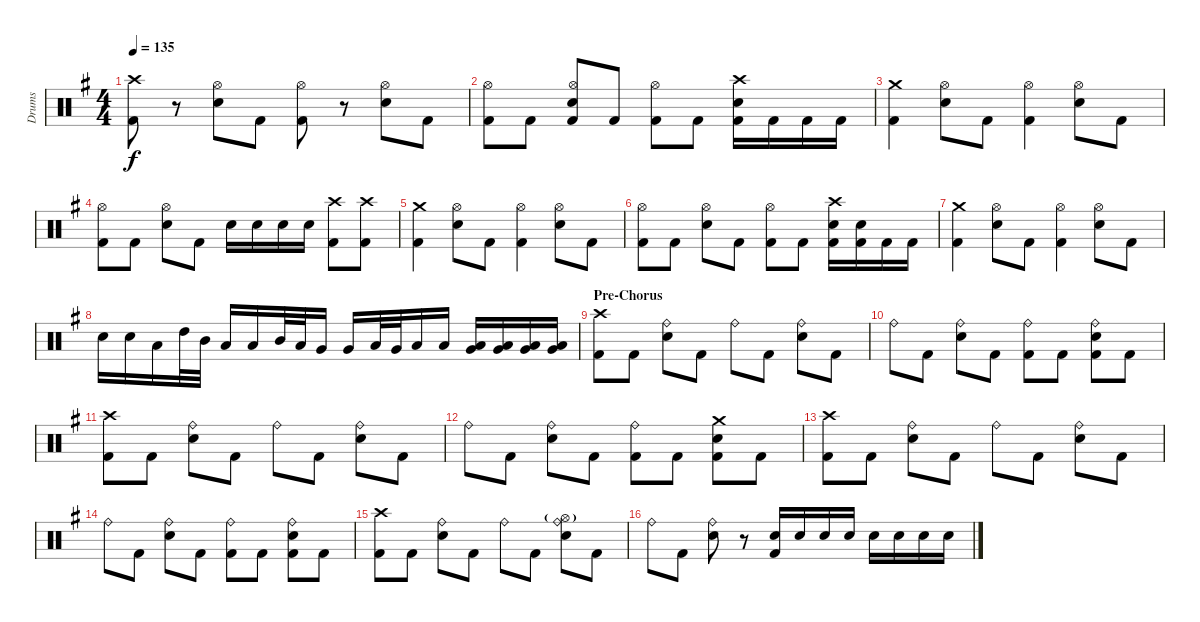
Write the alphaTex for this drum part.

\track ("Drums" "Drums") {instrument percussion}
\staff {score}
\articulation defaults
\ts (4 4)
\tempo 135
\clef neutral
\ks eminor
("Crash high (hit)" "Kick (hit) 2").8{dy f} r.8 ("Hi-Hat (open)" "Snare (hit) 2").8 "Kick (hit) 2".8 ("Hi-Hat (open)" "Kick (hit) 2").8 r.8 ("Hi-Hat (open)" "Snare (hit) 2").8 "Kick (hit) 2".8 |
("Hi-Hat (open)" "Kick (hit) 2").8 "Kick (hit) 2".8 ("Hi-Hat (open)" "Snare (hit) 2" "Kick (hit) 2").8 "Kick (hit) 2".8 ("Hi-Hat (open)" "Kick (hit) 2").8 "Kick (hit) 2".8 ("Crash high (hit)" "Snare (hit) 2" "Kick (hit) 2").16 "Kick (hit) 2".16 "Kick (hit) 2".16 "Kick (hit) 2".16 |
("Crash medium (hit)" "Kick (hit) 2").4 ("Hi-Hat (open)" "Snare (hit) 2").8 "Kick (hit) 2".8 ("Hi-Hat (open)" "Kick (hit) 2").4 ("Hi-Hat (open)" "Snare (hit) 2").8 "Kick (hit) 2".8 |
("Hi-Hat (open)" "Kick (hit) 2").8 "Kick (hit) 2".8 ("Hi-Hat (open)" "Snare (hit) 2").8 "Kick (hit) 2".8 "Snare (hit) 2".16 "Snare (hit) 2".16 "Snare (hit) 2".16 "Snare (hit) 2".16 ("Crash high (hit)" "Kick (hit) 2").8 ("Crash high (hit)" "Kick (hit) 2").8 |
("Crash medium (hit)" "Kick (hit) 2").4 ("Hi-Hat (open)" "Snare (hit) 2").8 "Kick (hit) 2".8 ("Hi-Hat (open)" "Kick (hit) 2").4 ("Hi-Hat (open)" "Snare (hit) 2").8 "Kick (hit) 2".8 |
("Hi-Hat (open)" "Kick (hit) 2").8 "Kick (hit) 2".8 ("Hi-Hat (open)" "Snare (hit) 2").8 "Kick (hit) 2".8 ("Hi-Hat (open)" "Kick (hit) 2").8 "Kick (hit) 2".8 ("Crash high (hit)" "Snare (hit) 2" "Kick (hit) 2").16 ("Snare (hit) 2" "Kick (hit) 2").16 "Kick (hit) 2".16 "Kick (hit) 2".16 |
("Crash medium (hit)" "Kick (hit) 2").4 ("Hi-Hat (open)" "Snare (hit) 2").8 "Kick (hit) 2".8 ("Hi-Hat (open)" "Kick (hit) 2").4 ("Hi-Hat (open)" "Snare (hit) 2").8 "Kick (hit) 2".8 |
"Snare (hit) 2".16 "Snare (hit) 2".16 "Low Tom (hit)".16 "High Tom (hit)".32 "Mid Tom (hit)".32 "Low Tom (hit)".16 "Low Tom (hit)".16 "Mid Tom (hit)".32 "Low Tom (hit)".32 "Very Low Tom (hit)".16 "Very Low Tom (hit)".16 "Low Tom (hit)".32 "Very Low Tom (hit)".32 "Low Floor Tom (hit)".16 "Low Floor Tom (hit)".16 ("Very Low Tom (hit)" "Low Floor Tom (hit)").16 ("Very Low Tom (hit)" "Low Floor Tom (hit)").16 ("Very Low Tom (hit)" "Low Floor Tom (hit)").16 ("Very Low Tom (hit)" "Low Floor Tom (hit)").16 |
\section ("" "Pre-Chorus")
("Crash high (hit)" "Kick (hit) 2").8 "Kick (hit) 2".8 ("Ride (bell)" "Snare (hit) 2").8 "Kick (hit) 2".8 "Ride (bell)".8 "Kick (hit) 2".8 ("Ride (bell)" "Snare (hit) 2").8 "Kick (hit) 2".8 |
"Ride (bell)".8 "Kick (hit) 2".8 ("Ride (bell)" "Snare (hit) 2").8 "Kick (hit) 2".8 ("Ride (bell)" "Kick (hit) 2").8 "Kick (hit) 2".8 ("Ride (bell)" "Snare (hit) 2" "Kick (hit) 2").8 "Kick (hit) 2".8 |
("Crash high (hit)" "Kick (hit) 2").8 "Kick (hit) 2".8 ("Ride (bell)" "Snare (hit) 2").8 "Kick (hit) 2".8 "Ride (bell)".8 "Kick (hit) 2".8 ("Ride (bell)" "Snare (hit) 2").8 "Kick (hit) 2".8 |
"Ride (bell)".8 "Kick (hit) 2".8 ("Ride (bell)" "Snare (hit) 2").8 "Kick (hit) 2".8 ("Ride (bell)" "Kick (hit) 2").8 "Kick (hit) 2".8 ("Crash medium (hit)" "Snare (hit) 2" "Kick (hit) 2").8 "Kick (hit) 2".8 |
("Crash high (hit)" "Kick (hit) 2").8 "Kick (hit) 2".8 ("Ride (bell)" "Snare (hit) 2").8 "Kick (hit) 2".8 "Ride (bell)".8 "Kick (hit) 2".8 ("Ride (bell)" "Snare (hit) 2").8 "Kick (hit) 2".8 |
"Ride (bell)".8 "Kick (hit) 2".8 ("Ride (bell)" "Snare (hit) 2").8 "Kick (hit) 2".8 ("Ride (bell)" "Kick (hit) 2").8 "Kick (hit) 2".8 ("Ride (bell)" "Snare (hit) 2" "Kick (hit) 2").8 "Kick (hit) 2".8 |
("Crash high (hit)" "Kick (hit) 2").8 "Kick (hit) 2".8 ("Ride (bell)" "Snare (hit) 2").8 "Kick (hit) 2".8 "Ride (bell)".8 "Kick (hit) 2".8 ("Hi-Hat (open)"{g} "Ride (bell)" "Snare (hit) 2").8 "Kick (hit) 2".8 |
"Ride (bell)".8 "Kick (hit) 2".8 ("Ride (bell)" "Snare (hit) 2").8 r.8 ("Snare (hit) 2" "Kick (hit) 2").16 "Snare (hit) 2".16 "Snare (hit) 2".16 "Snare (hit) 2".16 "Snare (hit) 2".16 "Snare (hit) 2".16 "Snare (hit) 2".16 "Snare (hit) 2".16
